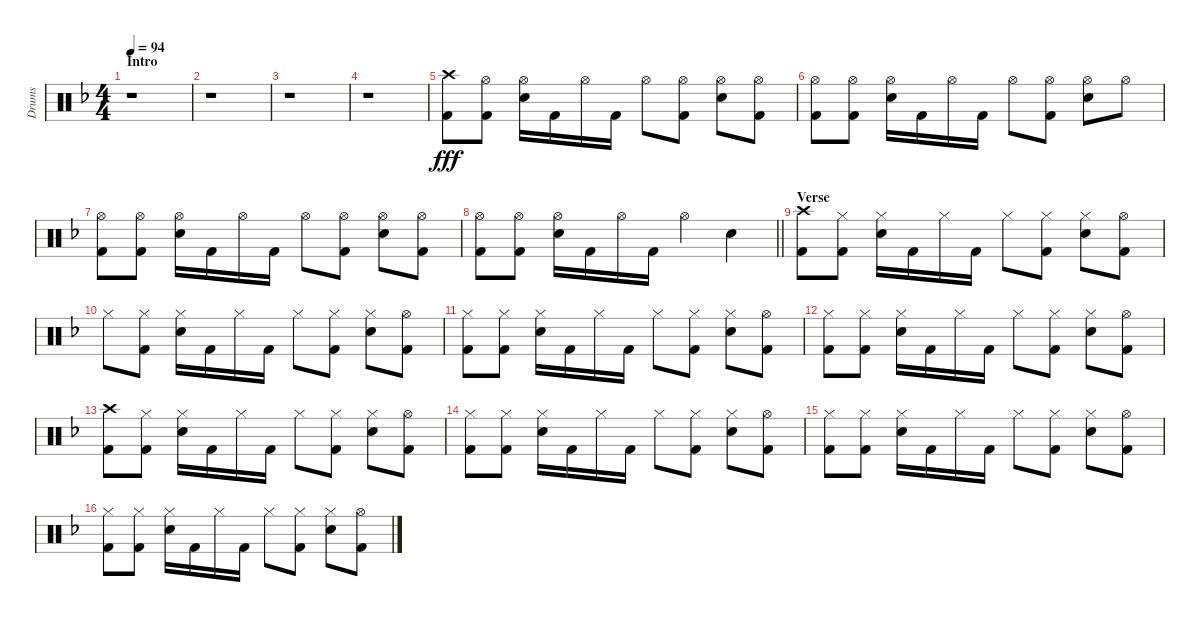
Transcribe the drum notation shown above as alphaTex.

\track ("Drums" "Drums") {instrument percussion}
\staff {score}
\articulation defaults
\ts (4 4)
\section ("" "Intro")
\tempo 94
\clef neutral
\ks f
r.1{dy fff} |
r.1 |
r.1 |
r.1 |
("Crash high (hit)" "Kick (hit) 2").8 ("Hi-Hat (open)" "Kick (hit) 2").8 ("Hi-Hat (open)" "Snare (hit) 2").16 "Kick (hit) 2".16 "Hi-Hat (open)".16 "Kick (hit) 2".16 "Hi-Hat (open)".8 ("Hi-Hat (open)" "Kick (hit) 2").8 ("Hi-Hat (open)" "Snare (hit) 2").8 ("Hi-Hat (open)" "Kick (hit) 2").8 |
("Hi-Hat (open)" "Kick (hit) 2").8 ("Hi-Hat (open)" "Kick (hit) 2").8 ("Hi-Hat (open)" "Snare (hit) 2").16 "Kick (hit) 2".16 "Hi-Hat (open)".16 "Kick (hit) 2".16 "Hi-Hat (open)".8 ("Hi-Hat (open)" "Kick (hit) 2").8 ("Hi-Hat (open)" "Snare (hit) 2").8 "Hi-Hat (open)".8 |
("Hi-Hat (open)" "Kick (hit) 2").8 ("Hi-Hat (open)" "Kick (hit) 2").8 ("Hi-Hat (open)" "Snare (hit) 2").16 "Kick (hit) 2".16 "Hi-Hat (open)".16 "Kick (hit) 2".16 "Hi-Hat (open)".8 ("Hi-Hat (open)" "Kick (hit) 2").8 ("Hi-Hat (open)" "Snare (hit) 2").8 ("Hi-Hat (open)" "Kick (hit) 2").8 |
\barLineRight lightlight
("Hi-Hat (open)" "Kick (hit) 2").8 ("Hi-Hat (open)" "Kick (hit) 2").8 ("Hi-Hat (open)" "Snare (hit) 2").16 "Kick (hit) 2".16 "Hi-Hat (open)".16 "Kick (hit) 2".16 "Hi-Hat (open)".4 "Snare (hit) 2".4 |
\section ("" "Verse")
("Crash high (hit)" "Kick (hit) 2").8 ("Hi-Hat (closed)" "Kick (hit) 2").8 ("Hi-Hat (closed)" "Snare (hit) 2").16 "Kick (hit) 2".16 "Hi-Hat (closed)".16 "Kick (hit) 2".16 "Hi-Hat (closed)".8 ("Hi-Hat (closed)" "Kick (hit) 2").8 ("Hi-Hat (closed)" "Snare (hit) 2").8 ("Hi-Hat (open)" "Kick (hit) 2").8 |
"Hi-Hat (closed)".8 ("Hi-Hat (closed)" "Kick (hit) 2").8 ("Hi-Hat (closed)" "Snare (hit) 2").16 "Kick (hit) 2".16 "Hi-Hat (closed)".16 "Kick (hit) 2".16 "Hi-Hat (closed)".8 ("Hi-Hat (closed)" "Kick (hit) 2").8 ("Hi-Hat (closed)" "Snare (hit) 2").8 ("Hi-Hat (open)" "Kick (hit) 2").8 |
("Hi-Hat (closed)" "Kick (hit) 2").8 ("Hi-Hat (closed)" "Kick (hit) 2").8 ("Hi-Hat (closed)" "Snare (hit) 2").16 "Kick (hit) 2".16 "Hi-Hat (closed)".16 "Kick (hit) 2".16 "Hi-Hat (closed)".8 ("Hi-Hat (closed)" "Kick (hit) 2").8 ("Hi-Hat (closed)" "Snare (hit) 2").8 ("Hi-Hat (open)" "Kick (hit) 2").8 |
("Hi-Hat (closed)" "Kick (hit) 2").8 ("Hi-Hat (closed)" "Kick (hit) 2").8 ("Hi-Hat (closed)" "Snare (hit) 2").16 "Kick (hit) 2".16 "Hi-Hat (closed)".16 "Kick (hit) 2".16 "Hi-Hat (closed)".8 ("Hi-Hat (closed)" "Kick (hit) 2").8 ("Hi-Hat (closed)" "Snare (hit) 2").8 ("Hi-Hat (open)" "Kick (hit) 2").8 |
("Crash high (hit)" "Kick (hit) 2").8 ("Hi-Hat (closed)" "Kick (hit) 2").8 ("Hi-Hat (closed)" "Snare (hit) 2").16 "Kick (hit) 2".16 "Hi-Hat (closed)".16 "Kick (hit) 2".16 "Hi-Hat (closed)".8 ("Hi-Hat (closed)" "Kick (hit) 2").8 ("Hi-Hat (closed)" "Snare (hit) 2").8 ("Hi-Hat (open)" "Kick (hit) 2").8 |
("Hi-Hat (closed)" "Kick (hit) 2").8 ("Hi-Hat (closed)" "Kick (hit) 2").8 ("Hi-Hat (closed)" "Snare (hit) 2").16 "Kick (hit) 2".16 "Hi-Hat (closed)".16 "Kick (hit) 2".16 "Hi-Hat (closed)".8 ("Hi-Hat (closed)" "Kick (hit) 2").8 ("Hi-Hat (closed)" "Snare (hit) 2").8 ("Hi-Hat (open)" "Kick (hit) 2").8 |
("Hi-Hat (closed)" "Kick (hit) 2").8 ("Hi-Hat (closed)" "Kick (hit) 2").8 ("Hi-Hat (closed)" "Snare (hit) 2").16 "Kick (hit) 2".16 "Hi-Hat (closed)".16 "Kick (hit) 2".16 "Hi-Hat (closed)".8 ("Hi-Hat (closed)" "Kick (hit) 2").8 ("Hi-Hat (closed)" "Snare (hit) 2").8 ("Hi-Hat (open)" "Kick (hit) 2").8 |
("Hi-Hat (closed)" "Kick (hit) 2").8 ("Hi-Hat (closed)" "Kick (hit) 2").8 ("Hi-Hat (closed)" "Snare (hit) 2").16 "Kick (hit) 2".16 "Hi-Hat (closed)".16 "Kick (hit) 2".16 "Hi-Hat (closed)".8 ("Hi-Hat (closed)" "Kick (hit) 2").8 ("Hi-Hat (closed)" "Snare (hit) 2").8 ("Hi-Hat (open)" "Kick (hit) 2").8
